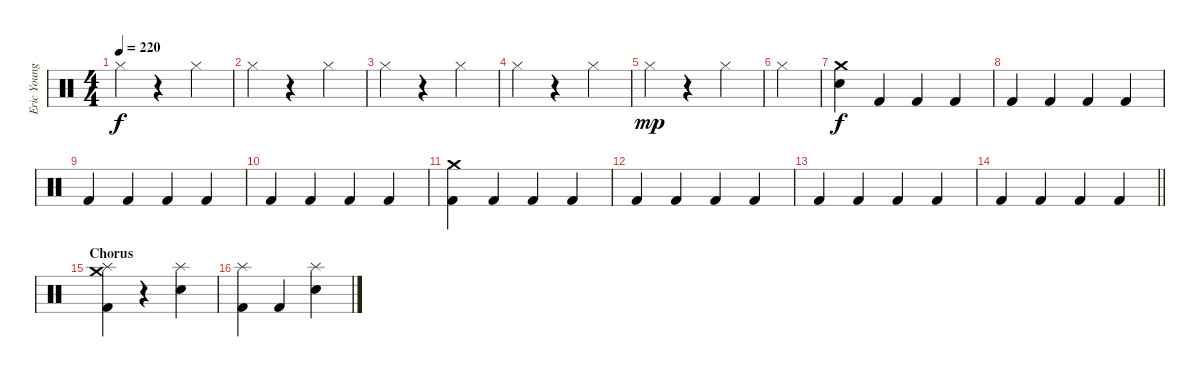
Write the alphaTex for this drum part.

\track ("Eric Young (Drums)" "Eric Young") {instrument percussion}
\staff {score}
\articulation defaults
\ts (4 4)
\tempo 220
\clef neutral
\ks c "Hi-Hat (closed)".4{dy f}
r.4 "Hi-Hat (closed)".4 |
"Hi-Hat (closed)".4 r.4 "Hi-Hat (closed)".4 |
"Hi-Hat (closed)".4 r.4 "Hi-Hat (closed)".4 |
"Hi-Hat (closed)".4 r.4 "Hi-Hat (closed)".4 |
"Hi-Hat (closed)".4{dy mp} r.4 "Hi-Hat (closed)".4 |
"Hi-Hat (closed)".4 |
("Snare (hit) 2" "Crash medium (hit)").4{dy f} "Kick (hit) 2".4 "Kick (hit) 2".4 "Kick (hit) 2".4 |
"Kick (hit) 2".4 "Kick (hit) 2".4 "Kick (hit) 2".4 "Kick (hit) 2".4 |
"Kick (hit) 2".4 "Kick (hit) 2".4 "Kick (hit) 2".4 "Kick (hit) 2".4 |
"Kick (hit) 2".4 "Kick (hit) 2".4 "Kick (hit) 2".4 "Kick (hit) 2".4 |
("Kick (hit) 2" "Crash medium (hit)").4 "Kick (hit) 2".4 "Kick (hit) 2".4 "Kick (hit) 2".4 |
"Kick (hit) 2".4 "Kick (hit) 2".4 "Kick (hit) 2".4 "Kick (hit) 2".4 |
"Kick (hit) 2".4 "Kick (hit) 2".4 "Kick (hit) 2".4 "Kick (hit) 2".4 |
\barLineRight lightlight "Kick (hit) 2".4 "Kick (hit) 2".4 "Kick (hit) 2".4 "Kick (hit) 2".4
|
\section ("" "Chorus")
("Splash (hit)" "Kick (hit) 2" "Crash medium (hit)").4 r.4 ("Splash (hit)" "Snare (hit) 2").4 |
("Splash (hit)" "Kick (hit) 2").4 "Kick (hit) 2".4 ("Splash (hit)" "Snare (hit) 2").4
